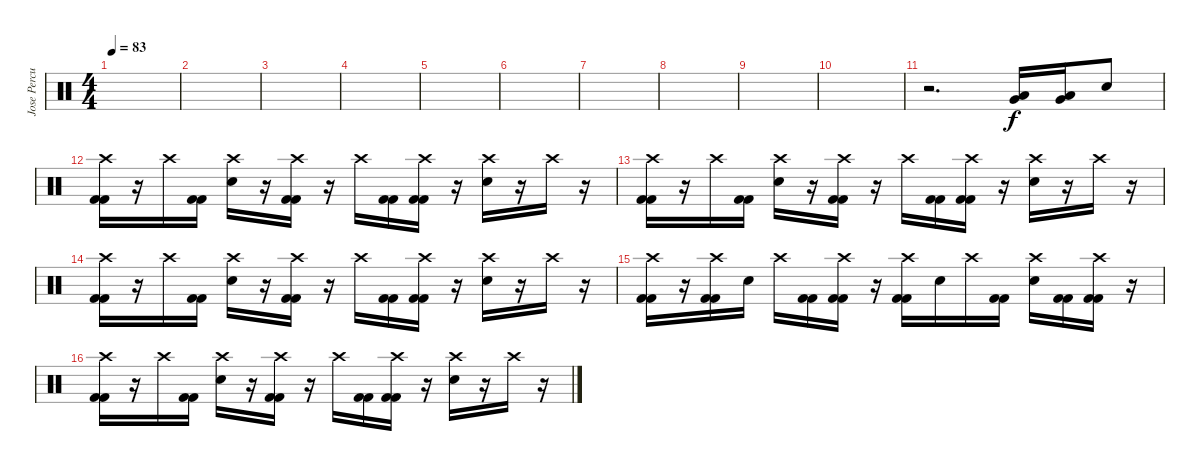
\track ("Jose Percusilas" "Jose Percu") {instrument percussion}
\staff {score}
\articulation defaults
\ts (4 4)
\tempo 83
\clef neutral
\ks c
|
|
|
|
|
|
|
|
|
|
r.2{d} ("Very Low Tom (hit)" "Low Floor Tom (hit)").16 ("Very Low Tom (hit)" "Low Floor Tom (hit)").16 "Electric Snare (hit)".8 |
("Crash high (hit)" "Kick (hit) 2" "Kick (hit) 2").16 r.16 "Crash high (hit)".16 ("Kick (hit) 2" "Kick (hit) 2").16 ("Crash high (hit)" "Electric Snare (hit)").16 r.16 ("Crash high (hit)" "Kick (hit) 2" "Kick (hit) 2").16 r.16 "Crash high (hit)".16 ("Kick (hit) 2" "Kick (hit) 2").16 ("Crash high (hit)" "Kick (hit) 2" "Kick (hit) 2").16 r.16 ("Crash high (hit)" "Electric Snare (hit)").16 r.16 "Crash high (hit)".16 r.16 |
("Crash high (hit)" "Kick (hit) 2" "Kick (hit) 2").16 r.16 "Crash high (hit)".16 ("Kick (hit) 2" "Kick (hit) 2").16 ("Crash high (hit)" "Electric Snare (hit)").16 r.16 ("Crash high (hit)" "Kick (hit) 2" "Kick (hit) 2").16 r.16 "Crash high (hit)".16 ("Kick (hit) 2" "Kick (hit) 2").16 ("Crash high (hit)" "Kick (hit) 2" "Kick (hit) 2").16 r.16 ("Crash high (hit)" "Electric Snare (hit)").16 r.16 "Crash high (hit)".16 r.16 |
("Crash high (hit)" "Kick (hit) 2" "Kick (hit) 2").16 r.16 "Crash high (hit)".16 ("Kick (hit) 2" "Kick (hit) 2").16 ("Crash high (hit)" "Electric Snare (hit)").16 r.16 ("Crash high (hit)" "Kick (hit) 2" "Kick (hit) 2").16 r.16 "Crash high (hit)".16 ("Kick (hit) 2" "Kick (hit) 2").16 ("Crash high (hit)" "Kick (hit) 2" "Kick (hit) 2").16 r.16 ("Crash high (hit)" "Electric Snare (hit)").16 r.16 "Crash high (hit)".16 r.16 |
("Crash high (hit)" "Kick (hit) 2" "Kick (hit) 2").16 r.16 ("Crash high (hit)" "Kick (hit) 2" "Kick (hit) 2").16 "Electric Snare (hit)".16 "Crash high (hit)".16 ("Kick (hit) 2" "Kick (hit) 2").16 ("Crash high (hit)" "Kick (hit) 2" "Kick (hit) 2").16 r.16 ("Crash high (hit)" "Kick (hit) 2" "Kick (hit) 2").16 "Electric Snare (hit)".16 "Crash high (hit)".16 ("Kick (hit) 2" "Kick (hit) 2").16 ("Crash high (hit)" "Electric Snare (hit)").16 ("Kick (hit) 2" "Kick (hit) 2").16 ("Crash high (hit)" "Kick (hit) 2" "Kick (hit) 2").16 r.16 |
("Crash high (hit)" "Kick (hit) 2" "Kick (hit) 2").16 r.16 "Crash high (hit)".16 ("Kick (hit) 2" "Kick (hit) 2").16 ("Crash high (hit)" "Electric Snare (hit)").16 r.16 ("Crash high (hit)" "Kick (hit) 2" "Kick (hit) 2").16 r.16 "Crash high (hit)".16 ("Kick (hit) 2" "Kick (hit) 2").16 ("Crash high (hit)" "Kick (hit) 2" "Kick (hit) 2").16 r.16 ("Crash high (hit)" "Electric Snare (hit)").16 r.16 "Crash high (hit)".16 r.16
